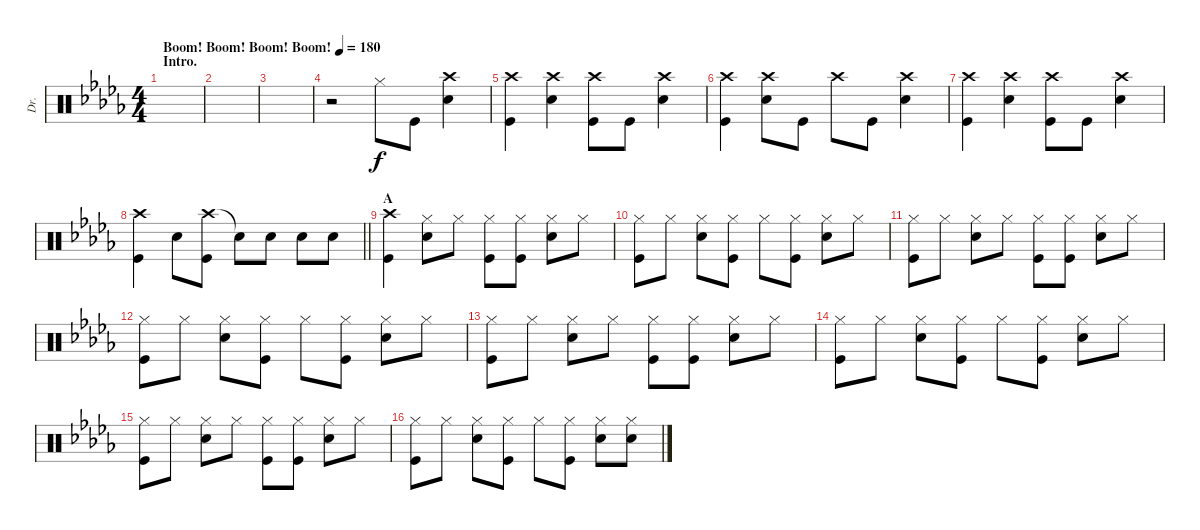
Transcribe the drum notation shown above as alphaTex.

\track ("Dr." "Dr.") {instrument percussion}
\staff {score}
\articulation defaults
\ts (4 4)
\section ("" "Intro.")
\tempo (180 "Boom! Boom! Boom! Boom!")
\clef neutral
\ks db
|
|
|
r.2 "Hi-Hat (closed)".8 "Kick (hit)".8 ("Crash high (hit)" "Snare (hit) 2").4 |
("Crash high (hit)" "Kick (hit)").4 ("Crash high (hit)" "Snare (hit) 2").4 ("Crash high (hit)" "Kick (hit)").8 "Kick (hit)".8 ("Crash high (hit)" "Snare (hit) 2").4 |
("Crash high (hit)" "Kick (hit)").4 ("Crash high (hit)" "Snare (hit) 2").8 "Kick (hit)".8 "Crash high (hit)".8 "Kick (hit)".8 ("Crash high (hit)" "Snare (hit) 2").4 |
("Crash high (hit)" "Kick (hit)").4 ("Crash high (hit)" "Snare (hit) 2").4 ("Crash high (hit)" "Kick (hit)").8 "Kick (hit)".8 ("Crash high (hit)" "Snare (hit) 2").4 |
\barLineRight lightlight
("Crash high (hit)" "Kick (hit)").4 "Snare (hit) 2".8 ("Crash high (hit)" "Kick (hit)").8 "Snare (hit)"{t}.8 "Snare (hit) 2".8 "Snare (hit) 2".8 "Snare (hit) 2".8 |
\section ("" "A")
("Crash high (hit)" "Kick (hit)").4 ("Hi-Hat (closed)" "Snare (hit) 2").8 "Hi-Hat (closed)".8 ("Hi-Hat (closed)" "Kick (hit)").8 ("Hi-Hat (closed)" "Kick (hit)").8 ("Hi-Hat (closed)" "Snare (hit) 2").8 "Hi-Hat (closed)".8 |
("Hi-Hat (closed)" "Kick (hit)").8 "Hi-Hat (closed)".8 ("Hi-Hat (closed)" "Snare (hit) 2").8 ("Hi-Hat (closed)" "Kick (hit)").8 "Hi-Hat (closed)".8 ("Hi-Hat (closed)" "Kick (hit)").8 ("Hi-Hat (closed)" "Snare (hit) 2").8 "Hi-Hat (closed)".8 |
("Hi-Hat (closed)" "Kick (hit)").8 "Hi-Hat (closed)".8 ("Hi-Hat (closed)" "Snare (hit) 2").8 "Hi-Hat (closed)".8 ("Hi-Hat (closed)" "Kick (hit)").8 ("Hi-Hat (closed)" "Kick (hit)").8 ("Hi-Hat (closed)" "Snare (hit) 2").8 "Hi-Hat (closed)".8 |
("Hi-Hat (closed)" "Kick (hit)").8 "Hi-Hat (closed)".8 ("Hi-Hat (closed)" "Snare (hit) 2").8 ("Hi-Hat (closed)" "Kick (hit)").8 "Hi-Hat (closed)".8 ("Hi-Hat (closed)" "Kick (hit)").8 ("Hi-Hat (closed)" "Snare (hit) 2").8 "Hi-Hat (closed)".8 |
("Hi-Hat (closed)" "Kick (hit)").8 "Hi-Hat (closed)".8 ("Hi-Hat (closed)" "Snare (hit) 2").8 "Hi-Hat (closed)".8 ("Hi-Hat (closed)" "Kick (hit)").8 ("Hi-Hat (closed)" "Kick (hit)").8 ("Hi-Hat (closed)" "Snare (hit) 2").8 "Hi-Hat (closed)".8 |
("Hi-Hat (closed)" "Kick (hit)").8 "Hi-Hat (closed)".8 ("Hi-Hat (closed)" "Snare (hit) 2").8 ("Hi-Hat (closed)" "Kick (hit)").8 "Hi-Hat (closed)".8 ("Hi-Hat (closed)" "Kick (hit)").8 ("Hi-Hat (closed)" "Snare (hit) 2").8 "Hi-Hat (closed)".8 |
("Hi-Hat (closed)" "Kick (hit)").8 "Hi-Hat (closed)".8 ("Hi-Hat (closed)" "Snare (hit) 2").8 "Hi-Hat (closed)".8 ("Hi-Hat (closed)" "Kick (hit)").8 ("Hi-Hat (closed)" "Kick (hit)").8 ("Hi-Hat (closed)" "Snare (hit) 2").8 "Hi-Hat (closed)".8 |
("Hi-Hat (closed)" "Kick (hit)").8 "Hi-Hat (closed)".8 ("Hi-Hat (closed)" "Snare (hit) 2").8 ("Hi-Hat (closed)" "Kick (hit)").8 "Hi-Hat (closed)".8 ("Hi-Hat (closed)" "Kick (hit)").8 ("Hi-Hat (closed)" "Snare (hit) 2").8 ("Hi-Hat (closed)" "Snare (hit) 2").8
